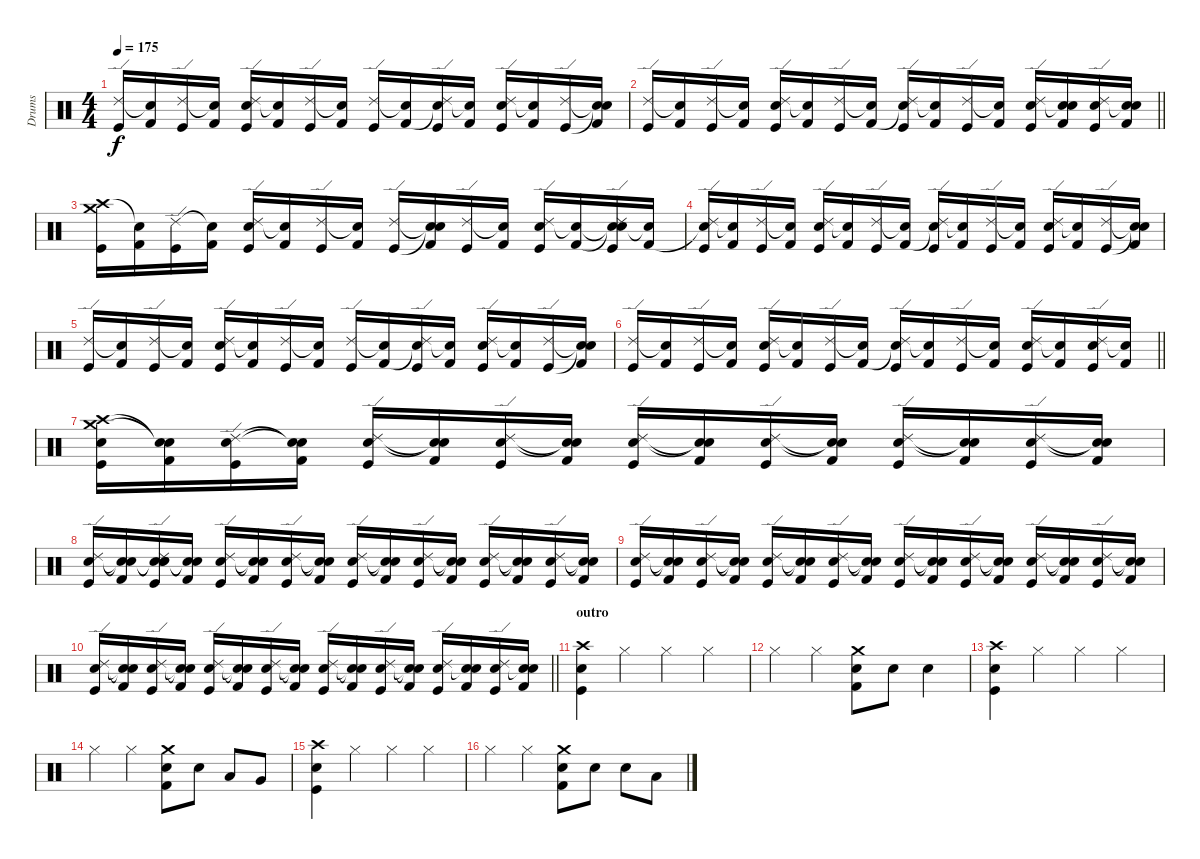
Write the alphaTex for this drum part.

\track ("Drums" "Drums") {instrument percussion}
\staff {score}
\articulation defaults
\ts (4 4)
\tempo 175
\clef neutral
\ks c
("Ride (edge) 2" "Kick (hit)").16{dy f} ("Snare (hit)"{t} "Kick (hit) 2").16 ("Ride (edge) 2" "Kick (hit)").16 ("Snare (hit)"{t} "Kick (hit) 2").16 ("Ride (edge) 2" "Snare (hit) 2" "Kick (hit)").16 ("Snare (hit)"{t} "Kick (hit) 2").16 ("Ride (edge) 2" "Kick (hit)").16 ("Snare (hit)"{t} "Kick (hit) 2").16 ("Ride (edge) 2" "Kick (hit)").16 ("Snare (hit)"{t} "Kick (hit) 2").16 ("Ride (edge) 2" "Snare (hit)"{t} "Kick (hit)").16 ("Snare (hit)"{t} "Kick (hit) 2").16 ("Ride (edge) 2" "Snare (hit) 2" "Kick (hit)").16 ("Snare (hit)"{t} "Kick (hit) 2").16 ("Ride (edge) 2" "Kick (hit)").16 ("Snare (hit)"{t} "Snare (hit)"{t} "Kick (hit) 2").16 |
\barLineRight lightlight
("Ride (edge) 2" "Kick (hit)").16 ("Snare (hit)"{t} "Kick (hit) 2").16 ("Ride (edge) 2" "Kick (hit)").16 ("Snare (hit)"{t} "Kick (hit) 2").16 ("Ride (edge) 2" "Snare (hit) 2" "Kick (hit)").16 ("Snare (hit)"{t} "Kick (hit) 2").16 ("Ride (edge) 2" "Kick (hit)").16 ("Snare (hit)"{t} "Kick (hit) 2").16 ("Ride (edge) 2" "Snare (hit)"{t} "Kick (hit)").16 ("Snare (hit)"{t} "Kick (hit) 2").16 ("Ride (edge) 2" "Kick (hit)").16 ("Snare (hit)"{t} "Kick (hit) 2").16 ("Ride (edge) 2" "Snare (hit) 2" "Kick (hit)").16 ("Snare (hit)"{t} "Snare (hit) 2" "Kick (hit) 2").16 ("Ride (edge) 2" "Snare (hit) 2" "Kick (hit)").16 ("Snare (hit)"{t} "Snare (hit) 2" "Kick (hit) 2").16 |
("Crash high (hit)" "Crash medium (hit)" "Kick (hit)").16 ("Snare (hit)"{t} "Kick (hit) 2").16 ("Ride (edge) 2" "Kick (hit)").16 ("Snare (hit)"{t} "Kick (hit) 2").16 ("Ride (edge) 2" "Snare (hit) 2" "Kick (hit)").16 ("Snare (hit)"{t} "Kick (hit) 2").16 ("Ride (edge) 2" "Kick (hit)").16 ("Snare (hit)"{t} "Kick (hit) 2").16 ("Ride (edge) 2" "Kick (hit)").16 ("Snare (hit)"{t} "Snare (hit)"{t} "Kick (hit) 2").16 ("Ride (edge) 2" "Kick (hit)").16 ("Snare (hit)"{t} "Kick (hit) 2").16 ("Ride (edge) 2" "Snare (hit) 2" "Kick (hit)").16 ("Snare (hit)"{t} "Kick (hit) 2").16 ("Snare (hit)"{t} "Snare (hit)"{t} "Ride (edge) 2" "Kick (hit)").16 ("Snare (hit)"{t} "Kick (hit) 2").16 |
("Ride (edge) 2" "Snare (hit)"{t} "Kick (hit)").16 ("Snare (hit)"{t} "Kick (hit) 2").16 ("Ride (edge) 2" "Kick (hit)").16 ("Snare (hit)"{t} "Kick (hit) 2").16 ("Ride (edge) 2" "Snare (hit) 2" "Kick (hit)").16 ("Snare (hit)"{t} "Kick (hit) 2").16 ("Ride (edge) 2" "Kick (hit)").16 ("Snare (hit)"{t} "Kick (hit) 2").16 ("Ride (edge) 2" "Snare (hit)"{t} "Kick (hit)").16 ("Snare (hit)"{t} "Kick (hit) 2").16 ("Ride (edge) 2" "Kick (hit)").16 ("Snare (hit)"{t} "Kick (hit) 2").16 ("Ride (edge) 2" "Snare (hit) 2" "Kick (hit)").16 ("Snare (hit)"{t} "Kick (hit) 2").16 ("Ride (edge) 2" "Kick (hit)").16 ("Snare (hit)"{t} "Snare (hit)"{t} "Kick (hit) 2").16 |
("Ride (edge) 2" "Kick (hit)").16 ("Snare (hit)"{t} "Kick (hit) 2").16 ("Ride (edge) 2" "Kick (hit)").16 ("Snare (hit)"{t} "Kick (hit) 2").16 ("Ride (edge) 2" "Snare (hit) 2" "Kick (hit)").16 ("Snare (hit)"{t} "Kick (hit) 2").16 ("Ride (edge) 2" "Kick (hit)").16 ("Snare (hit)"{t} "Kick (hit) 2").16 ("Ride (edge) 2" "Kick (hit)").16 ("Snare (hit)"{t} "Kick (hit) 2").16 ("Ride (edge) 2" "Snare (hit)"{t} "Kick (hit)").16 ("Snare (hit)"{t} "Kick (hit) 2").16 ("Ride (edge) 2" "Snare (hit) 2" "Kick (hit)").16 ("Snare (hit)"{t} "Kick (hit) 2").16 ("Ride (edge) 2" "Kick (hit)").16 ("Snare (hit)"{t} "Snare (hit)"{t} "Kick (hit) 2").16 |
\barLineRight lightlight
("Ride (edge) 2" "Kick (hit)").16 ("Snare (hit)"{t} "Kick (hit) 2").16 ("Ride (edge) 2" "Kick (hit)").16 ("Snare (hit)"{t} "Kick (hit) 2").16 ("Ride (edge) 2" "Snare (hit) 2" "Kick (hit)").16 ("Snare (hit)"{t} "Kick (hit) 2").16 ("Ride (edge) 2" "Kick (hit)").16 ("Snare (hit)"{t} "Kick (hit) 2").16 ("Ride (edge) 2" "Snare (hit)"{t} "Kick (hit)").16 ("Snare (hit)"{t} "Kick (hit) 2").16 ("Ride (edge) 2" "Kick (hit)").16 ("Snare (hit)"{t} "Kick (hit) 2").16 ("Ride (edge) 2" "Snare (hit) 2" "Kick (hit)").16 ("Snare (hit)"{t} "Kick (hit) 2").16 ("Ride (edge) 2" "Snare (hit) 2" "Kick (hit)").16 ("Snare (hit)"{t} "Kick (hit) 2").16 |
("Crash high (hit)" "Crash medium (hit)" "Snare (hit) 2" "Kick (hit)").16 ("Snare (hit)"{t} "Snare (hit)"{t} "Kick (hit) 2").16 ("Ride (edge) 2" "Snare (hit) 2" "Kick (hit)").16 ("Snare (hit)"{t} "Snare (hit)"{t} "Kick (hit) 2").16 ("Ride (edge) 2" "Snare (hit) 2" "Kick (hit)").16 ("Snare (hit)"{t} "Snare (hit)"{t} "Kick (hit) 2").16 ("Ride (edge) 2" "Snare (hit) 2" "Kick (hit)").16 ("Snare (hit)"{t} "Snare (hit)"{t} "Kick (hit) 2").16 ("Ride (edge) 2" "Snare (hit) 2" "Kick (hit)").16 ("Snare (hit)"{t} "Snare (hit)"{t} "Kick (hit) 2").16 ("Ride (edge) 2" "Snare (hit) 2" "Kick (hit)").16 ("Snare (hit)"{t} "Snare (hit)"{t} "Kick (hit) 2").16 ("Ride (edge) 2" "Snare (hit) 2" "Kick (hit)").16 ("Snare (hit)"{t} "Snare (hit)"{t} "Kick (hit) 2").16 ("Ride (edge) 2" "Snare (hit) 2" "Kick (hit)").16 ("Snare (hit)"{t} "Snare (hit)"{t} "Kick (hit) 2").16 |
("Ride (edge) 2" "Snare (hit) 2" "Kick (hit)").16 ("Snare (hit)"{t} "Snare (hit)"{t} "Kick (hit) 2").16 ("Snare (hit)"{t} "Snare (hit)"{t} "Ride (edge) 2" "Snare (hit) 2" "Kick (hit)").16 ("Snare (hit)"{t} "Snare (hit)"{t} "Kick (hit) 2").16 ("Ride (edge) 2" "Snare (hit) 2" "Kick (hit)").16 ("Snare (hit)"{t} "Snare (hit)"{t} "Kick (hit) 2").16 ("Ride (edge) 2" "Snare (hit) 2" "Kick (hit)").16 ("Snare (hit)"{t} "Snare (hit)"{t} "Kick (hit) 2").16 ("Ride (edge) 2" "Snare (hit) 2" "Kick (hit)").16 ("Snare (hit)"{t} "Snare (hit)"{t} "Kick (hit) 2").16 ("Ride (edge) 2" "Snare (hit) 2" "Kick (hit)").16 ("Snare (hit)"{t} "Snare (hit)"{t} "Kick (hit) 2").16 ("Ride (edge) 2" "Snare (hit) 2" "Kick (hit)").16 ("Snare (hit)"{t} "Snare (hit)"{t} "Kick (hit) 2").16 ("Ride (edge) 2" "Snare (hit) 2" "Kick (hit)").16 ("Snare (hit)"{t} "Snare (hit)"{t} "Kick (hit) 2").16 |
("Ride (edge) 2" "Snare (hit) 2" "Kick (hit)").16 ("Snare (hit)"{t} "Snare (hit)"{t} "Kick (hit) 2").16 ("Ride (edge) 2" "Snare (hit) 2" "Kick (hit)").16 ("Snare (hit)"{t} "Snare (hit)"{t} "Kick (hit) 2").16 ("Ride (edge) 2" "Snare (hit) 2" "Kick (hit)").16 ("Snare (hit)"{t} "Snare (hit)"{t} "Kick (hit) 2").16 ("Ride (edge) 2" "Snare (hit) 2" "Kick (hit)").16 ("Snare (hit)"{t} "Snare (hit)"{t} "Kick (hit) 2").16 ("Ride (edge) 2" "Snare (hit) 2" "Kick (hit)").16 ("Snare (hit)"{t} "Snare (hit)"{t} "Kick (hit) 2").16 ("Ride (edge) 2" "Snare (hit) 2" "Kick (hit)").16 ("Snare (hit)"{t} "Snare (hit)"{t} "Kick (hit) 2").16 ("Ride (edge) 2" "Snare (hit) 2" "Kick (hit)").16 ("Snare (hit)"{t} "Snare (hit)"{t} "Kick (hit) 2").16 ("Ride (edge) 2" "Snare (hit) 2" "Kick (hit)").16 ("Snare (hit)"{t} "Snare (hit)"{t} "Kick (hit) 2").16 |
\barLineRight lightlight
("Ride (edge) 2" "Snare (hit) 2" "Kick (hit)").16 ("Snare (hit)"{t} "Snare (hit)"{t} "Kick (hit) 2").16 ("Ride (edge) 2" "Snare (hit) 2" "Kick (hit)").16 ("Snare (hit)"{t} "Snare (hit)"{t} "Kick (hit) 2").16 ("Ride (edge) 2" "Snare (hit) 2" "Kick (hit)").16 ("Snare (hit)"{t} "Snare (hit)"{t} "Kick (hit) 2").16 ("Ride (edge) 2" "Snare (hit) 2" "Kick (hit)").16 ("Snare (hit)"{t} "Snare (hit)"{t} "Kick (hit) 2").16 ("Ride (edge) 2" "Snare (hit) 2" "Kick (hit)").16 ("Snare (hit)"{t} "Snare (hit)"{t} "Kick (hit) 2").16 ("Ride (edge) 2" "Snare (hit) 2" "Kick (hit)").16 ("Snare (hit)"{t} "Snare (hit)"{t} "Kick (hit) 2").16 ("Ride (edge) 2" "Snare (hit) 2" "Kick (hit)").16 ("Snare (hit)"{t} "Snare (hit) 2" "Kick (hit) 2").16 ("Ride (edge) 2" "Snare (hit) 2" "Kick (hit)").16 ("Snare (hit)"{t} "Snare (hit) 2" "Kick (hit) 2").16 |
\section ("" "outro")
("Kick (hit)" "Snare (hit) 2" "Crash high (hit)").4 "Hi-Hat (closed)".4 "Hi-Hat (closed)".4 "Hi-Hat (closed)".4 |
"Hi-Hat (closed)".4 "Hi-Hat (closed)".4 ("Kick (hit) 2" "Snare (hit) 2" "Crash medium (hit)").8 "Snare (hit) 2".8 "Snare (hit) 2".4 |
("Kick (hit)" "Snare (hit) 2" "Crash high (hit)").4 "Hi-Hat (closed)".4 "Hi-Hat (closed)".4 "Hi-Hat (closed)".4 |
"Hi-Hat (closed)".4 "Hi-Hat (closed)".4 ("Kick (hit) 2" "Snare (hit) 2" "Crash medium (hit)").8 "Snare (hit) 2".8 "Low Tom (hit)".8 "Very Low Tom (hit)".8 |
("Kick (hit)" "Snare (hit) 2" "Crash high (hit)").4 "Hi-Hat (closed)".4 "Hi-Hat (closed)".4 "Hi-Hat (closed)".4 |
"Hi-Hat (closed)".4 "Hi-Hat (closed)".4 ("Kick (hit) 2" "Snare (hit) 2" "Crash medium (hit)").8 "Snare (hit) 2".8 "Snare (hit) 2".8 "Low Tom (hit)".8
